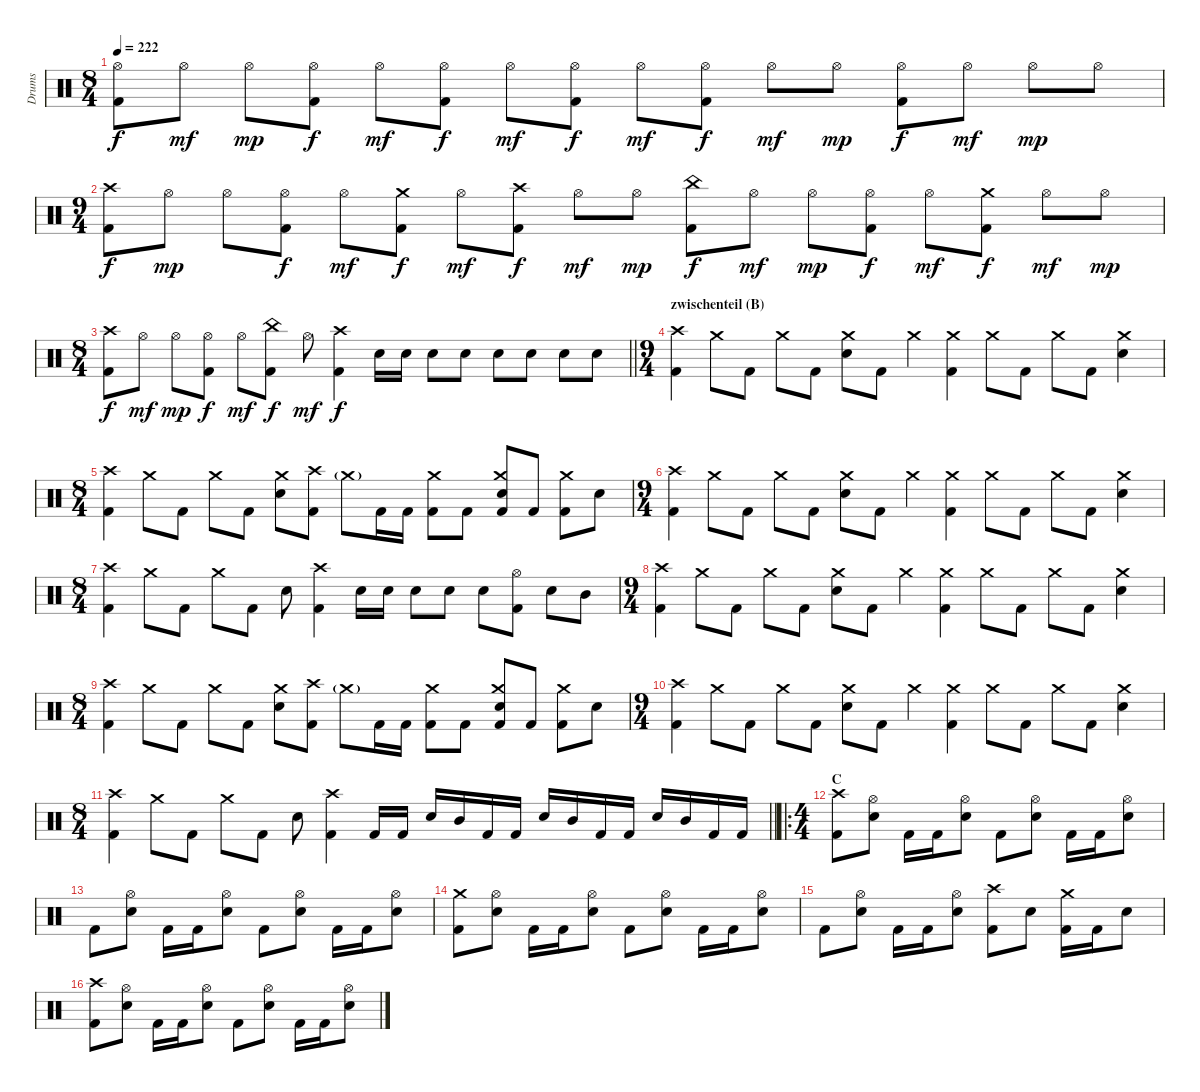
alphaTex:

\track ("Drums" "Drums") {instrument percussion}
\staff {score}
\articulation defaults
\ts (8 4)
\tempo 222
\clef neutral
\ks c
("Hi-Hat (open)" "Kick (hit) 2").8{dy f} "Hi-Hat (open)".8{dy mf} "Hi-Hat (open)".8{dy mp} ("Hi-Hat (open)" "Kick (hit) 2").8{dy f} "Hi-Hat (open)".8{dy mf} ("Hi-Hat (open)" "Kick (hit) 2").8{dy f} "Hi-Hat (open)".8{dy mf} ("Hi-Hat (open)" "Kick (hit) 2").8{dy f} "Hi-Hat (open)".8{dy mf} ("Hi-Hat (open)" "Kick (hit) 2").8{dy f} "Hi-Hat (open)".8{dy mf} "Hi-Hat (open)".8{dy mp} ("Hi-Hat (open)" "Kick (hit) 2").8{dy f} "Hi-Hat (open)".8{dy mf} "Hi-Hat (open)".8{dy mp} "Hi-Hat (open)".8 |
\ts (9 4)
("Crash high (hit)" "Kick (hit) 2").8{dy f} "Hi-Hat (open)".8{dy mp} "Hi-Hat (open)".8 ("Hi-Hat (open)" "Kick (hit) 2").8{dy f} "Hi-Hat (open)".8{dy mf} ("Crash medium (hit)" "Kick (hit) 2").8{dy f} "Hi-Hat (open)".8{dy mf} ("Crash high (hit)" "Kick (hit) 2").8{dy f} "Hi-Hat (open)".8{dy mf} "Hi-Hat (open)".8{dy mp} ("China (hit)" "Kick (hit) 2").8{dy f} "Hi-Hat (open)".8{dy mf} "Hi-Hat (open)".8{dy mp} ("Hi-Hat (open)" "Kick (hit) 2").8{dy f} "Hi-Hat (open)".8{dy mf} ("Crash medium (hit)" "Kick (hit) 2").8{dy f} "Hi-Hat (open)".8{dy mf} "Hi-Hat (open)".8{dy mp} |
\ts (8 4)
\barLineRight lightlight
("Crash high (hit)" "Kick (hit) 2").8{dy f} "Hi-Hat (open)".8{dy mf} "Hi-Hat (open)".8{dy mp} ("Hi-Hat (open)" "Kick (hit) 2").8{dy f} "Hi-Hat (open)".8{dy mf} ("China (hit)" "Kick (hit) 2").8{dy f} "Hi-Hat (open)".8{dy mf} ("Crash high (hit)" "Kick (hit) 2").4{dy f} "Electric Snare (hit)".16 "Electric Snare (hit)".16 "Electric Snare (hit)".8 "Electric Snare (hit)".8 "Electric Snare (hit)".8 "Electric Snare (hit)".8 "Electric Snare (hit)".8 "Electric Snare (hit)".8 |
\ts (9 4)
\section ("" "zwischenteil (B)")
("Crash high (hit)" "Kick (hit) 2").4 "Crash medium (hit)".8 "Kick (hit) 2".8 "Crash medium (hit)".8 "Kick (hit) 2".8 ("Crash medium (hit)" "Electric Snare (hit)").8 "Kick (hit) 2".8 "Crash medium (hit)".4 ("Crash medium (hit)" "Kick (hit) 2").4 "Crash medium (hit)".8 "Kick (hit) 2".8 "Crash medium (hit)".8 "Kick (hit) 2".8 ("Crash medium (hit)" "Electric Snare (hit)").4 |
\ts (8 4)
("Crash high (hit)" "Kick (hit) 2").4 "Crash medium (hit)".8 "Kick (hit) 2".8 "Crash medium (hit)".8 "Kick (hit) 2".8 ("Crash medium (hit)" "Electric Snare (hit)").8 ("Crash high (hit)" "Kick (hit) 2").8 "Crash medium (hit)"{g}.8 "Kick (hit) 2".16 "Kick (hit) 2".16 ("Crash medium (hit)" "Kick (hit) 2").8 "Kick (hit) 2".8 ("Crash medium (hit)" "Electric Snare (hit)" "Kick (hit) 2").8 "Kick (hit) 2".8 ("Crash medium (hit)" "Kick (hit) 2").8 "Electric Snare (hit)".8 |
\ts (9 4)
("Crash high (hit)" "Kick (hit) 2").4 "Crash medium (hit)".8 "Kick (hit) 2".8 "Crash medium (hit)".8 "Kick (hit) 2".8 ("Crash medium (hit)" "Electric Snare (hit)").8 "Kick (hit) 2".8 "Crash medium (hit)".4 ("Crash medium (hit)" "Kick (hit) 2").4 "Crash medium (hit)".8 "Kick (hit) 2".8 "Crash medium (hit)".8 "Kick (hit) 2".8 ("Crash medium (hit)" "Electric Snare (hit)").4 |
\ts (8 4)
("Crash high (hit)" "Kick (hit) 2").4 "Crash medium (hit)".8 "Kick (hit) 2".8 "Crash medium (hit)".8 "Kick (hit) 2".8 "Electric Snare (hit)".8 ("Crash high (hit)" "Kick (hit) 2").4 "Electric Snare (hit)".16 "Electric Snare (hit)".16 "Electric Snare (hit)".8 "Electric Snare (hit)".8 "Electric Snare (hit)".8 ("Hi-Hat (open)" "Kick (hit) 2").8 "Electric Snare (hit)".8 "Mid Tom (hit)".8 |
\ts (9 4)
("Crash high (hit)" "Kick (hit) 2").4 "Crash medium (hit)".8 "Kick (hit) 2".8 "Crash medium (hit)".8 "Kick (hit) 2".8 ("Crash medium (hit)" "Electric Snare (hit)").8 "Kick (hit) 2".8 "Crash medium (hit)".4 ("Crash medium (hit)" "Kick (hit) 2").4 "Crash medium (hit)".8 "Kick (hit) 2".8 "Crash medium (hit)".8 "Kick (hit) 2".8 ("Crash medium (hit)" "Electric Snare (hit)").4 |
\ts (8 4)
("Crash high (hit)" "Kick (hit) 2").4 "Crash medium (hit)".8 "Kick (hit) 2".8 "Crash medium (hit)".8 "Kick (hit) 2".8 ("Crash medium (hit)" "Electric Snare (hit)").8 ("Crash high (hit)" "Kick (hit) 2").8 "Crash medium (hit)"{g}.8 "Kick (hit) 2".16 "Kick (hit) 2".16 ("Crash medium (hit)" "Kick (hit) 2").8 "Kick (hit) 2".8 ("Crash medium (hit)" "Electric Snare (hit)" "Kick (hit) 2").8 "Kick (hit) 2".8 ("Crash medium (hit)" "Kick (hit) 2").8 "Electric Snare (hit)".8 |
\ts (9 4)
("Crash high (hit)" "Kick (hit) 2").4 "Crash medium (hit)".8 "Kick (hit) 2".8 "Crash medium (hit)".8 "Kick (hit) 2".8 ("Crash medium (hit)" "Electric Snare (hit)").8 "Kick (hit) 2".8 "Crash medium (hit)".4 ("Crash medium (hit)" "Kick (hit) 2").4 "Crash medium (hit)".8 "Kick (hit) 2".8 "Crash medium (hit)".8 "Kick (hit) 2".8 ("Crash medium (hit)" "Electric Snare (hit)").4 |
\ts (8 4)
\barLineRight lightlight
("Crash high (hit)" "Kick (hit) 2").4 "Crash medium (hit)".8 "Kick (hit) 2".8 "Crash medium (hit)".8 "Kick (hit) 2".8 "Electric Snare (hit)".8 ("Crash high (hit)" "Kick (hit) 2").4 "Kick (hit) 2".16 "Kick (hit) 2".16 "Electric Snare (hit)".16 "Mid Tom (hit)".16 "Kick (hit) 2".16 "Kick (hit) 2".16 "Electric Snare (hit)".16 "Mid Tom (hit)".16 "Kick (hit) 2".16 "Kick (hit) 2".16 "Electric Snare (hit)".16 "Mid Tom (hit)".16 "Kick (hit) 2".16 "Kick (hit) 2".16 |
\ro
\ts (4 4)
\section ("" "C")
("Crash high (hit)" "Kick (hit) 2").8 ("Hi-Hat (open)" "Electric Snare (hit)").8 "Kick (hit) 2".16 "Kick (hit) 2".16 ("Hi-Hat (open)" "Electric Snare (hit)").8 "Kick (hit) 2".8 ("Hi-Hat (open)" "Electric Snare (hit)").8 "Kick (hit) 2".16 "Kick (hit) 2".16 ("Hi-Hat (open)" "Electric Snare (hit)").8 |
"Kick (hit) 2".8 ("Hi-Hat (open)" "Electric Snare (hit)").8 "Kick (hit) 2".16 "Kick (hit) 2".16 ("Hi-Hat (open)" "Electric Snare (hit)").8 "Kick (hit) 2".8 ("Hi-Hat (open)" "Electric Snare (hit)").8 "Kick (hit) 2".16 "Kick (hit) 2".16 ("Hi-Hat (open)" "Electric Snare (hit)").8 |
("Crash medium (hit)" "Kick (hit) 2").8 ("Hi-Hat (open)" "Electric Snare (hit)").8 "Kick (hit) 2".16 "Kick (hit) 2".16 ("Hi-Hat (open)" "Electric Snare (hit)").8 "Kick (hit) 2".8 ("Hi-Hat (open)" "Electric Snare (hit)").8 "Kick (hit) 2".16 "Kick (hit) 2".16 ("Hi-Hat (open)" "Electric Snare (hit)").8 |
"Kick (hit) 2".8 ("Hi-Hat (open)" "Electric Snare (hit)").8 "Kick (hit) 2".16 "Kick (hit) 2".16 ("Hi-Hat (open)" "Electric Snare (hit)").8 ("Crash high (hit)" "Kick (hit) 2").8 "Electric Snare (hit)".8 ("Crash medium (hit)" "Kick (hit) 2").16 "Kick (hit) 2".16 "Electric Snare (hit)".8 |
("Crash high (hit)" "Kick (hit) 2").8 ("Hi-Hat (open)" "Electric Snare (hit)").8 "Kick (hit) 2".16 "Kick (hit) 2".16 ("Hi-Hat (open)" "Electric Snare (hit)").8 "Kick (hit) 2".8 ("Hi-Hat (open)" "Electric Snare (hit)").8 "Kick (hit) 2".16 "Kick (hit) 2".16 ("Hi-Hat (open)" "Electric Snare (hit)").8
